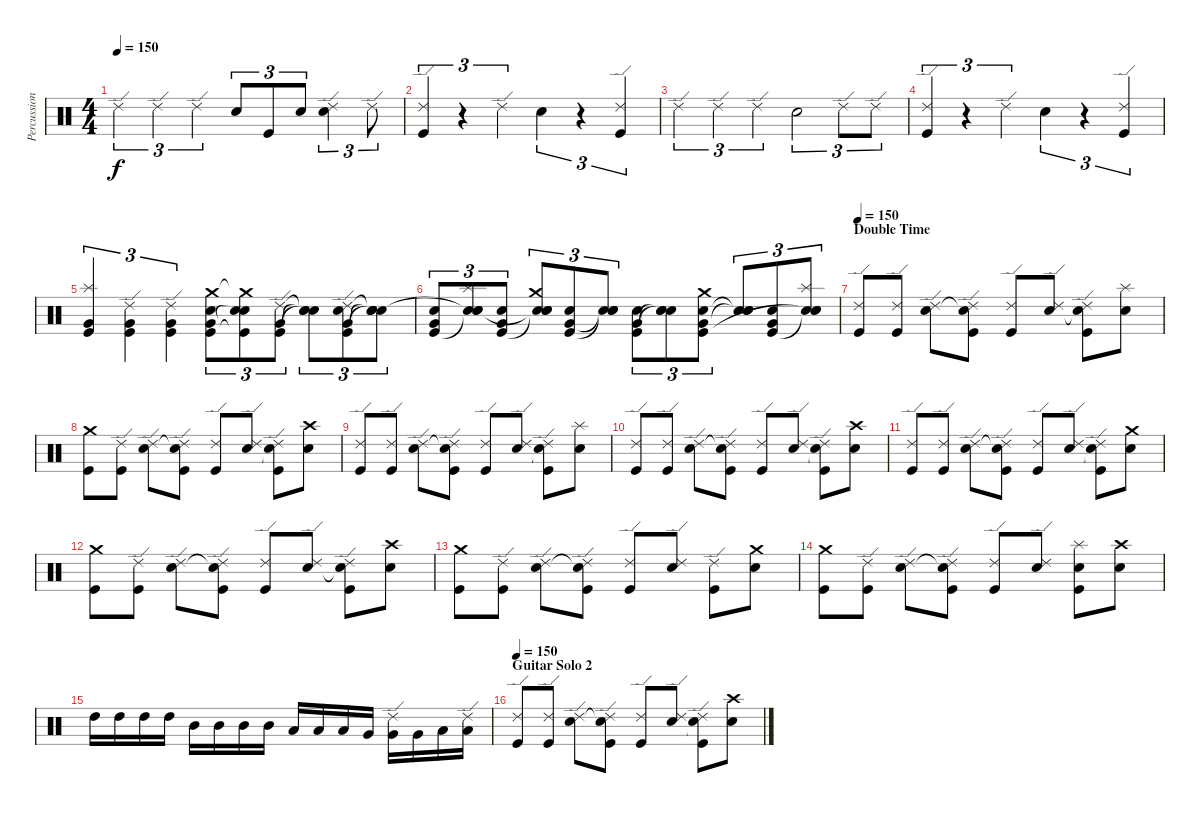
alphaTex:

\track ("Percussioni" "Percussion") {instrument percussion}
\staff {score}
\articulation defaults
\ts (4 4)
\tempo 150
\clef neutral
\ks c "Ride (edge) 2".4{tu (3 2) dy f} "Ride (edge) 2".4{tu (3 2)} "Ride (edge) 2".4{tu (3 2)} "Electric Snare (hit)".8{tu (3 2)} "Kick (hit)".8{tu (3 2)} "Electric Snare (hit)".8{tu (3 2)}
("Ride (edge) 2" "Electric Snare (hit)"{t}).4{tu (3 2)} "Ride (edge) 2".8{tu (3 2)} |
("Ride (edge) 2" "Kick (hit)").4{tu (3 2)} r.4{tu (3 2)} "Ride (edge) 2".4{tu (3 2)} "Electric Snare (hit)".4{tu (3 2)} r.4{tu (3 2)} ("Ride (edge) 2" "Kick (hit)").4{tu (3 2)} |
"Ride (edge) 2".4{tu (3 2)} "Ride (edge) 2".4{tu (3 2)} "Ride (edge) 2".4{tu (3 2)} "Electric Snare (hit)".2{tu (3 2)} "Ride (edge) 2".8{tu (3 2)} "Ride (edge) 2".8{tu (3 2)} |
("Ride (edge) 2" "Kick (hit)").4{tu (3 2)} r.4{tu (3 2)} "Ride (edge) 2".4{tu (3 2)} "Electric Snare (hit)".4{tu (3 2)} r.4{tu (3 2)} ("Ride (edge) 2" "Kick (hit)").4{tu (3 2)} |
("Splash (hit)" "Very Low Tom (hit)" "Kick (hit)").4{tu (3 2)} ("Ride (edge) 2" "Very Low Tom (hit)" "Kick (hit)").4{tu (3 2)} ("Ride (edge) 2" "Very Low Tom (hit)" "Kick (hit)").4{tu (3 2)} ("Crash medium (hit)" "Electric Snare (hit)" "Very Low Tom (hit)" "Kick (hit)").8{tu (3 2)} ("Crash medium (hit)"{t} "Electric Snare (hit)" "Snare (hit)"{t} "Kick (hit)"{t}).8{tu (3 2)} ("Ride (edge) 2" "Very Low Tom (hit)" "Kick (hit)").8{tu (3 2)} ("Snare (hit)"{t} "Snare (hit)"{t} "Snare (hit)"{t}).8{tu (3 2)} ("Ride (edge) 2" "Electric Snare (hit)" "Very Low Tom (hit)" "Kick (hit)").8{tu (3 2)} ("Snare (hit)"{t} "Electric Snare (hit)" "Snare (hit)"{t} "Snare (hit)"{t}).8{tu (3 2)} |
("Electric Snare (hit)" "Very Low Tom (hit)" "Kick (hit)").8{tu (3 2)} ("Splash (hit)" "Electric Snare (hit)" "Snare (hit)"{t} "Snare (hit)"{t}).8{tu (3 2)} ("Electric Snare (hit)" "Very Low Tom (hit)" "Kick (hit)").8{tu (3 2)} ("Crash medium (hit)" "Electric Snare (hit)" "Snare (hit)"{t} "Snare (hit)"{t}).8{tu (3 2)} ("Electric Snare (hit)" "Very Low Tom (hit)" "Kick (hit)").8{tu (3 2)} ("Electric Snare (hit)" "Snare (hit)"{t} "Snare (hit)"{t}).8{tu (3 2)} ("Electric Snare (hit)" "Very Low Tom (hit)" "Kick (hit)").8{tu (3 2)} ("Electric Snare (hit)" "Snare (hit)"{t} "Snare (hit)"{t}).8{tu (3 2)} ("Crash medium (hit)" "Electric Snare (hit)" "Very Low Tom (hit)" "Kick (hit)").8{tu (3 2)} ("Electric Snare (hit)" "Snare (hit)"{t} "Snare (hit)"{t}).8{tu (3 2)} ("Electric Snare (hit)" "Very Low Tom (hit)" "Kick (hit)").8{tu (3 2)} ("Splash (hit)" "Electric Snare (hit)" "Snare (hit)"{t} "Snare (hit)"{t}).8{tu (3 2)} |
\section ("" "Double Time")
\tempo 150
("Ride (edge) 2" "Kick (hit)").8 ("Ride (edge) 2" "Kick (hit)").8 ("Ride (edge) 2" "Electric Snare (hit)").8 ("Ride (edge) 2" "Snare (hit)"{t} "Kick (hit)").8 ("Ride (edge) 2" "Kick (hit)").8 ("Ride (edge) 2" "Electric Snare (hit)").8 ("Ride (edge) 2" "Electric Snare (hit)"{t} "Kick (hit)").8 ("Splash (hit)" "Electric Snare (hit)").8 |
("Crash medium (hit)" "Kick (hit)").8 ("Ride (edge) 2" "Kick (hit)").8 ("Ride (edge) 2" "Electric Snare (hit)").8 ("Ride (edge) 2" "Snare (hit)"{t} "Kick (hit)").8 ("Ride (edge) 2" "Kick (hit)").8 ("Ride (edge) 2" "Electric Snare (hit)").8 ("Ride (edge) 2" "Electric Snare (hit)"{t} "Kick (hit)").8 ("Crash high (hit)" "Electric Snare (hit)").8 |
("Ride (edge) 2" "Kick (hit)").8 ("Ride (edge) 2" "Kick (hit)").8 ("Ride (edge) 2" "Electric Snare (hit)").8 ("Ride (edge) 2" "Snare (hit)"{t} "Kick (hit)").8 ("Ride (edge) 2" "Kick (hit)").8 ("Ride (edge) 2" "Electric Snare (hit)").8 ("Ride (edge) 2" "Electric Snare (hit)"{t} "Kick (hit)").8 ("Splash (hit)" "Electric Snare (hit)").8 |
("Ride (edge) 2" "Kick (hit)").8 ("Ride (edge) 2" "Kick (hit)").8 ("Ride (edge) 2" "Electric Snare (hit)").8 ("Ride (edge) 2" "Snare (hit)"{t} "Kick (hit)").8 ("Ride (edge) 2" "Kick (hit)").8 ("Ride (edge) 2" "Electric Snare (hit)").8 ("Ride (edge) 2" "Electric Snare (hit)"{t} "Kick (hit)").8 ("Crash high (hit)" "Electric Snare (hit)").8 |
("Ride (edge) 2" "Kick (hit)").8 ("Ride (edge) 2" "Kick (hit)").8 ("Ride (edge) 2" "Electric Snare (hit)").8 ("Ride (edge) 2" "Snare (hit)"{t} "Kick (hit)").8 ("Ride (edge) 2" "Kick (hit)").8 ("Ride (edge) 2" "Electric Snare (hit)").8 ("Ride (edge) 2" "Electric Snare (hit)"{t} "Kick (hit)").8 ("Crash medium (hit)" "Electric Snare (hit)").8 |
("Crash medium (hit)" "Kick (hit)").8 ("Ride (edge) 2" "Kick (hit)").8 ("Ride (edge) 2" "Electric Snare (hit)").8 ("Ride (edge) 2" "Snare (hit)"{t} "Kick (hit)").8 ("Ride (edge) 2" "Kick (hit)").8 ("Ride (edge) 2" "Electric Snare (hit)").8 ("Ride (edge) 2" "Electric Snare (hit)"{t} "Kick (hit)").8 ("Crash high (hit)" "Electric Snare (hit)").8 |
("Crash medium (hit)" "Kick (hit)").8 ("Ride (edge) 2" "Kick (hit)").8 ("Ride (edge) 2" "Electric Snare (hit)").8 ("Ride (edge) 2" "Snare (hit)"{t} "Kick (hit)").8 ("Ride (edge) 2" "Kick (hit)").8 ("Ride (edge) 2" "Electric Snare (hit)").8 ("Ride (edge) 2" "Kick (hit)").8 ("Crash medium (hit)" "Electric Snare (hit)").8 |
("Crash medium (hit)" "Kick (hit)").8 ("Ride (edge) 2" "Kick (hit)").8 ("Ride (edge) 2" "Electric Snare (hit)").8 ("Ride (edge) 2" "Snare (hit)"{t} "Kick (hit)").8 ("Ride (edge) 2" "Kick (hit)").8 ("Ride (edge) 2" "Electric Snare (hit)").8 ("Splash (hit)" "Electric Snare (hit)" "Kick (hit)").8 ("Crash high (hit)" "Electric Snare (hit)").8 |
"High Tom (hit)".16 "High Tom (hit)".16 "High Tom (hit)".16 "High Tom (hit)".16 "Mid Tom (hit)".16 "Mid Tom (hit)".16 "Mid Tom (hit)".16 "Mid Tom (hit)".16 "Low Tom (hit)".16 "Low Tom (hit)".16 "Low Tom (hit)".16 "Very Low Tom (hit)".16 ("Ride (edge) 2" "Very Low Tom (hit)").16 "Very Low Tom (hit)".16 "Low Floor Tom (hit)".16 ("Ride (edge) 2" "Low Floor Tom (hit)").16 |
\section ("" "Guitar Solo 2")
\tempo 150
("Ride (edge) 2" "Kick (hit)").8 ("Ride (edge) 2" "Kick (hit)").8 ("Ride (edge) 2" "Electric Snare (hit)").8 ("Ride (edge) 2" "Snare (hit)"{t} "Kick (hit)").8 ("Ride (edge) 2" "Kick (hit)").8 ("Ride (edge) 2" "Electric Snare (hit)").8 ("Ride (edge) 2" "Electric Snare (hit)"{t} "Kick (hit)").8 ("Crash high (hit)" "Electric Snare (hit)").8
